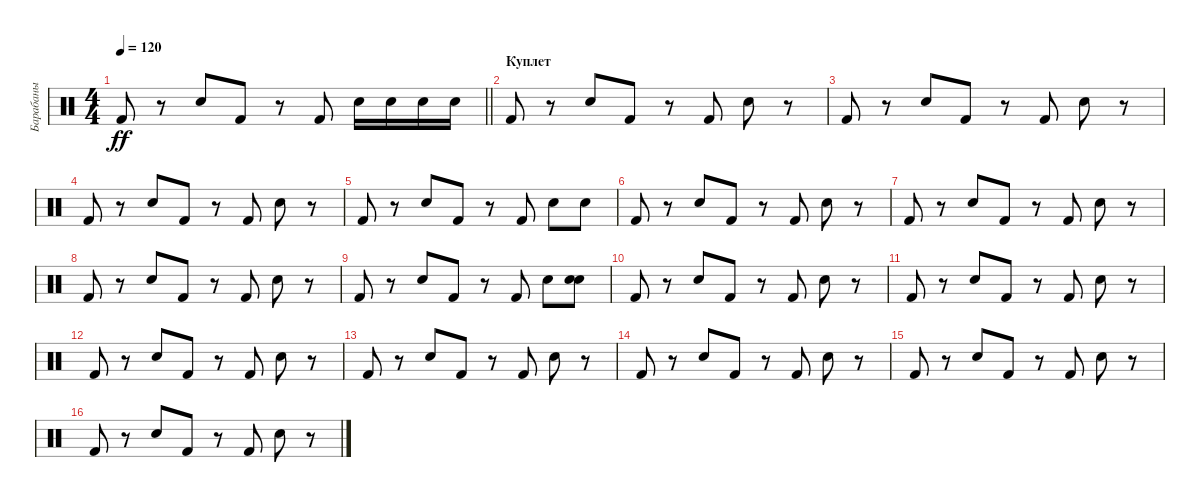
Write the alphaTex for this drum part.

\track ("Барабаны" "Барабаны") {instrument percussion}
\staff {score}
\articulation defaults
\ts (4 4)
\tempo 120
\clef neutral
\barLineRight lightlight
\ks c "Kick (hit) 2".8{dy ff}
r.8 "Electric Snare (hit)".8 "Kick (hit) 2".8 r.8 "Kick (hit) 2".8 "Electric Snare (hit)".16 "Electric Snare (hit)".16 "Electric Snare (hit)".16 "Electric Snare (hit)".16 |
\section ("" "Куплет")
"Kick (hit) 2".8 r.8 "Electric Snare (hit)".8 "Kick (hit) 2".8 r.8 "Kick (hit) 2".8 "Electric Snare (hit)".8 r.8 |
"Kick (hit) 2".8 r.8 "Electric Snare (hit)".8 "Kick (hit) 2".8 r.8 "Kick (hit) 2".8 "Electric Snare (hit)".8 r.8 |
"Kick (hit) 2".8 r.8 "Electric Snare (hit)".8 "Kick (hit) 2".8 r.8 "Kick (hit) 2".8 "Electric Snare (hit)".8 r.8 |
"Kick (hit) 2".8 r.8 "Electric Snare (hit)".8 "Kick (hit) 2".8 r.8 "Kick (hit) 2".8 "Electric Snare (hit)".8 "Snare (hit) 2".8 |
"Kick (hit) 2".8 r.8 "Electric Snare (hit)".8 "Kick (hit) 2".8 r.8 "Kick (hit) 2".8 "Electric Snare (hit)".8 r.8 |
"Kick (hit) 2".8 r.8 "Electric Snare (hit)".8 "Kick (hit) 2".8 r.8 "Kick (hit) 2".8 "Electric Snare (hit)".8 r.8 |
"Kick (hit) 2".8 r.8 "Electric Snare (hit)".8 "Kick (hit) 2".8 r.8 "Kick (hit) 2".8 "Electric Snare (hit)".8 r.8 |
"Kick (hit) 2".8 r.8 "Electric Snare (hit)".8 "Kick (hit) 2".8 r.8 "Kick (hit) 2".8 "Electric Snare (hit)".8 ("Snare (hit) 2" "Electric Snare (hit)").8 |
"Kick (hit) 2".8 r.8 "Electric Snare (hit)".8 "Kick (hit) 2".8 r.8 "Kick (hit) 2".8 "Electric Snare (hit)".8 r.8 |
"Kick (hit) 2".8 r.8 "Electric Snare (hit)".8 "Kick (hit) 2".8 r.8 "Kick (hit) 2".8 "Electric Snare (hit)".8 r.8 |
"Kick (hit) 2".8 r.8 "Electric Snare (hit)".8 "Kick (hit) 2".8 r.8 "Kick (hit) 2".8 "Electric Snare (hit)".8 r.8 |
"Kick (hit) 2".8 r.8 "Electric Snare (hit)".8 "Kick (hit) 2".8 r.8 "Kick (hit) 2".8 "Electric Snare (hit)".8 r.8 |
"Kick (hit) 2".8 r.8 "Electric Snare (hit)".8 "Kick (hit) 2".8 r.8 "Kick (hit) 2".8 "Electric Snare (hit)".8 r.8 |
"Kick (hit) 2".8 r.8 "Electric Snare (hit)".8 "Kick (hit) 2".8 r.8 "Kick (hit) 2".8 "Electric Snare (hit)".8 r.8 |
"Kick (hit) 2".8 r.8 "Electric Snare (hit)".8 "Kick (hit) 2".8 r.8 "Kick (hit) 2".8 "Electric Snare (hit)".8 r.8
